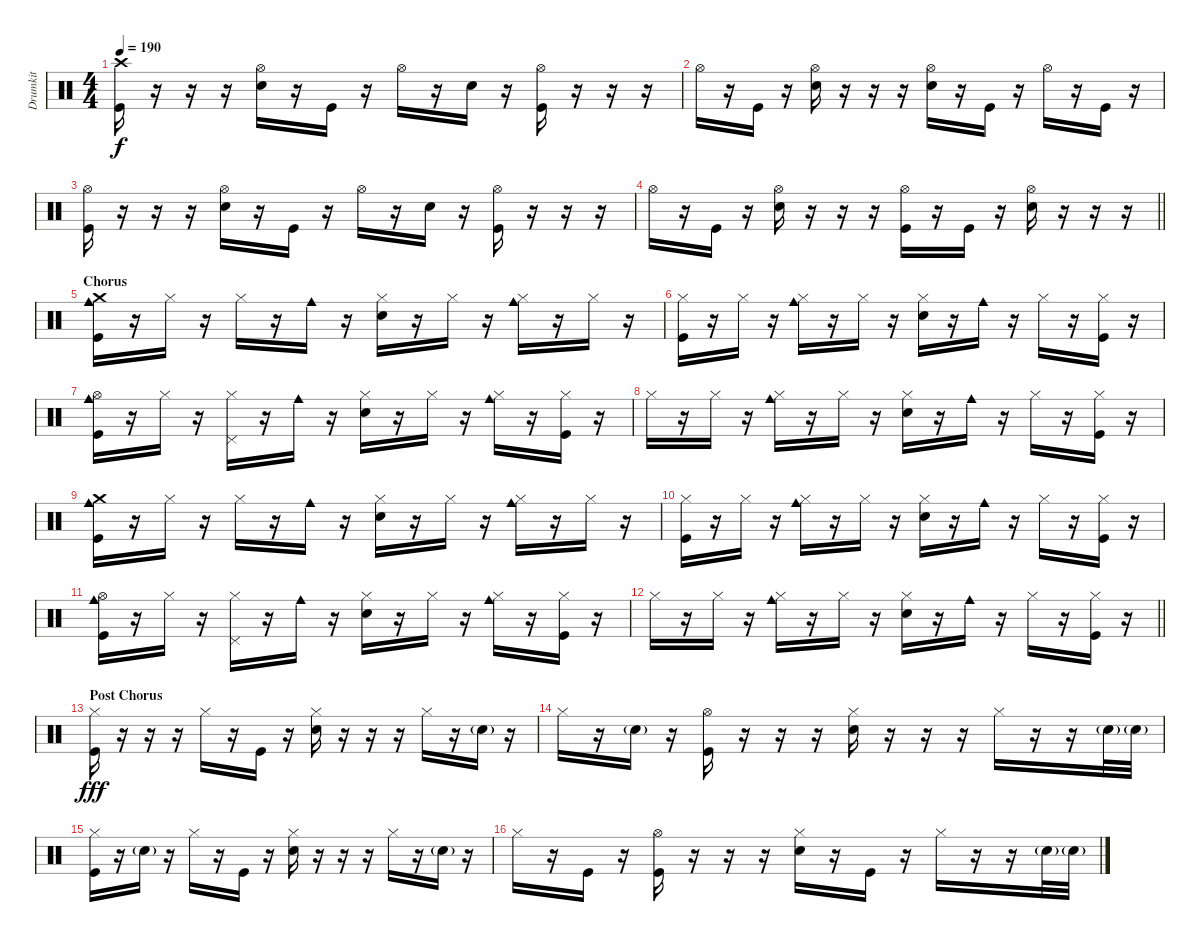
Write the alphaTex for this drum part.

\track ("Drumkit" "Drumkit") {instrument percussion}
\staff {score}
\articulation defaults
\ts (4 4)
\tempo 190
\clef neutral
\ks c
("Crash high (hit)" "Kick (hit)").16{dy f} r.16 r.16 r.16 ("Hi-Hat (open)" "Snare (hit) 2").16 r.16 "Kick (hit)".16 r.16 "Hi-Hat (open)".16 r.16 "Snare (hit) 2".16 r.16 ("Hi-Hat (open)" "Kick (hit)").16 r.16 r.16 r.16 |
"Hi-Hat (open)".16 r.16 "Kick (hit)".16 r.16 ("Hi-Hat (open)" "Snare (hit) 2").16 r.16 r.16 r.16 ("Hi-Hat (open)" "Snare (hit) 2").16 r.16 "Kick (hit)".16 r.16 "Hi-Hat (open)".16 r.16 "Kick (hit)".16 r.16 |
("Hi-Hat (open)" "Kick (hit)").16 r.16 r.16 r.16 ("Hi-Hat (open)" "Snare (hit) 2").16 r.16 "Kick (hit)".16 r.16 "Hi-Hat (open)".16 r.16 "Snare (hit) 2".16 r.16 ("Hi-Hat (open)" "Kick (hit)").16 r.16 r.16 r.16 |
\barLineRight lightlight "Hi-Hat (open)".16
r.16 "Kick (hit)".16 r.16 ("Hi-Hat (open)" "Snare (hit) 2").16 r.16 r.16 r.16 ("Hi-Hat (open)" "Kick (hit)").16 r.16 "Kick (hit)".16 r.16 ("Hi-Hat (open)" "Snare (hit) 2").16 r.16 r.16 r.16 |
\section ("" "Chorus")
("Crash medium (hit)" "Cowbell medium (hit)" "Kick (hit)").16 r.16 "Hi-Hat (closed)".16 r.16 "Hi-Hat (closed)".16 r.16 "Cowbell medium (hit)".16 r.16 ("Hi-Hat (closed)" "Snare (hit) 2").16 r.16 "Hi-Hat (closed)".16 r.16 ("Hi-Hat (closed)" "Cowbell medium (hit)").16 r.16 "Hi-Hat (closed)".16 r.16 |
("Hi-Hat (closed)" "Kick (hit)").16 r.16 "Hi-Hat (closed)".16 r.16 ("Hi-Hat (closed)" "Cowbell medium (hit)").16 r.16 "Hi-Hat (closed)".16 r.16 ("Hi-Hat (closed)" "Snare (hit) 2").16 r.16 "Cowbell medium (hit)".16 r.16 "Hi-Hat (closed)".16 r.16 ("Hi-Hat (closed)" "Kick (hit)").16 r.16 |
("Hi-Hat (open)" "Cowbell medium (hit)" "Kick (hit)").16 r.16 "Hi-Hat (closed)".16 r.16 ("Hi-Hat (closed)" "Pedal Hi-Hat (hit)").16 r.16 "Cowbell medium (hit)".16 r.16 ("Hi-Hat (closed)" "Snare (hit) 2").16 r.16 "Hi-Hat (closed)".16 r.16 ("Hi-Hat (closed)" "Cowbell medium (hit)").16 r.16 ("Hi-Hat (closed)" "Kick (hit)").16 r.16 |
"Hi-Hat (closed)".16 r.16 "Hi-Hat (closed)".16 r.16 ("Hi-Hat (closed)" "Cowbell medium (hit)").16 r.16 "Hi-Hat (closed)".16 r.16 ("Hi-Hat (closed)" "Snare (hit) 2").16 r.16 "Cowbell medium (hit)".16 r.16 "Hi-Hat (closed)".16 r.16 ("Hi-Hat (closed)" "Kick (hit)").16 r.16 |
("Crash medium (hit)" "Cowbell medium (hit)" "Kick (hit)").16 r.16 "Hi-Hat (closed)".16 r.16 "Hi-Hat (closed)".16 r.16 "Cowbell medium (hit)".16 r.16 ("Hi-Hat (closed)" "Snare (hit) 2").16 r.16 "Hi-Hat (closed)".16 r.16 ("Hi-Hat (closed)" "Cowbell medium (hit)").16 r.16 "Hi-Hat (closed)".16 r.16 |
("Hi-Hat (closed)" "Kick (hit)").16 r.16 "Hi-Hat (closed)".16 r.16 ("Hi-Hat (closed)" "Cowbell medium (hit)").16 r.16 "Hi-Hat (closed)".16 r.16 ("Hi-Hat (closed)" "Snare (hit) 2").16 r.16 "Cowbell medium (hit)".16 r.16 "Hi-Hat (closed)".16 r.16 ("Hi-Hat (closed)" "Kick (hit)").16 r.16 |
("Hi-Hat (open)" "Cowbell medium (hit)" "Kick (hit)").16 r.16 "Hi-Hat (closed)".16 r.16 ("Hi-Hat (closed)" "Pedal Hi-Hat (hit)").16 r.16 "Cowbell medium (hit)".16 r.16 ("Hi-Hat (closed)" "Snare (hit) 2").16 r.16 "Hi-Hat (closed)".16 r.16 ("Hi-Hat (closed)" "Cowbell medium (hit)").16 r.16 ("Hi-Hat (closed)" "Kick (hit)").16 r.16 |
\barLineRight lightlight "Hi-Hat (closed)".16
r.16 "Hi-Hat (closed)".16 r.16 ("Hi-Hat (closed)" "Cowbell medium (hit)").16 r.16 "Hi-Hat (closed)".16 r.16 ("Hi-Hat (closed)" "Snare (hit) 2").16 r.16 "Cowbell medium (hit)".16 r.16 "Hi-Hat (closed)".16 r.16 ("Hi-Hat (closed)" "Kick (hit)").16 r.16 |
\section ("" "Post Chorus")
("Hi-Hat (closed)" "Kick (hit)").16{dy fff} r.16 r.16 r.16 "Hi-Hat (closed)".16 r.16 "Kick (hit)".16 r.16 ("Hi-Hat (closed)" "Snare (hit) 2").16 r.16 r.16 r.16 "Hi-Hat (closed)".16 r.16 "Snare (hit) 2"{g}.16 r.16 |
"Hi-Hat (closed)".16 r.16 "Snare (hit) 2"{g}.16 r.16 ("Hi-Hat (open)" "Kick (hit)").16 r.16 r.16 r.16 ("Hi-Hat (closed)" "Snare (hit) 2").16 r.16 r.16 r.16 "Hi-Hat (closed)".16 r.16 r.16 "Snare (hit) 2"{g}.32 "Snare (hit) 2"{g}.32 |
("Hi-Hat (closed)" "Kick (hit)").16 r.16 "Snare (hit) 2"{g}.16 r.16 "Hi-Hat (closed)".16 r.16 "Kick (hit)".16 r.16 ("Hi-Hat (closed)" "Snare (hit) 2").16 r.16 r.16 r.16 "Hi-Hat (closed)".16 r.16 "Snare (hit) 2"{g}.16 r.16 |
"Hi-Hat (closed)".16 r.16 "Kick (hit)".16 r.16 ("Hi-Hat (open)" "Kick (hit)").16 r.16 r.16 r.16 ("Hi-Hat (closed)" "Snare (hit) 2").16 r.16 "Kick (hit)".16 r.16 "Hi-Hat (closed)".16 r.16 r.16 "Snare (hit) 2"{g}.32 "Snare (hit) 2"{g}.32
